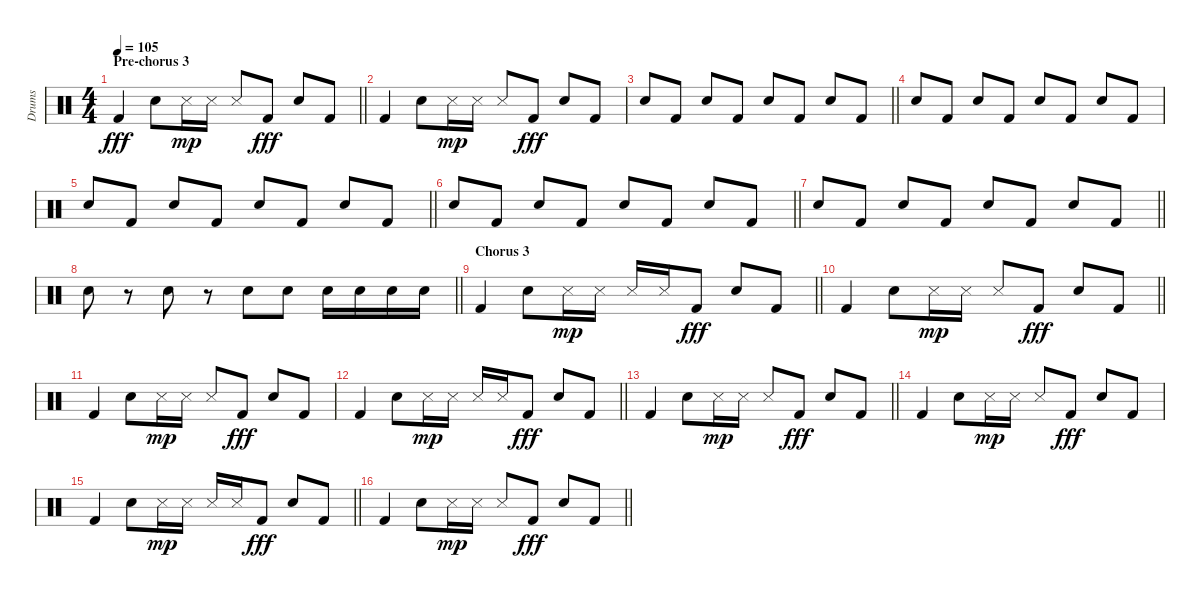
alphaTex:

\track ("Drums" "Drums") {instrument percussion}
\staff {score}
\articulation defaults
\ts (4 4)
\section ("" "Pre-chorus 3")
\tempo 105
\clef neutral
\barLineRight lightlight
\ks aminor "Kick (hit) 2".4{dy fff} "Electric Snare (hit)".8 "Snare (side stick) 3".16{dy mp} "Metronome (hit)".16 "Snare (side stick) 3".8 "Kick (hit) 2".8{dy fff} "Electric Snare (hit)".8 "Kick (hit) 2".8
|
"Kick (hit) 2".4 "Electric Snare (hit)".8 "Snare (side stick) 3".16{dy mp} "Metronome (hit)".16 "Snare (side stick) 3".8 "Kick (hit) 2".8{dy fff} "Electric Snare (hit)".8 "Kick (hit) 2".8 |
\barLineRight lightlight "Electric Snare (hit)".8 "Kick (hit) 2".8 "Electric Snare (hit)".8 "Kick (hit) 2".8 "Electric Snare (hit)".8 "Kick (hit) 2".8 "Electric Snare (hit)".8 "Kick (hit) 2".8
|
"Electric Snare (hit)".8 "Kick (hit) 2".8 "Electric Snare (hit)".8 "Kick (hit) 2".8 "Electric Snare (hit)".8 "Kick (hit) 2".8 "Electric Snare (hit)".8 "Kick (hit) 2".8 |
\barLineRight lightlight "Electric Snare (hit)".8 "Kick (hit) 2".8 "Electric Snare (hit)".8 "Kick (hit) 2".8 "Electric Snare (hit)".8 "Kick (hit) 2".8 "Electric Snare (hit)".8 "Kick (hit) 2".8
|
\barLineRight lightlight "Electric Snare (hit)".8 "Kick (hit) 2".8 "Electric Snare (hit)".8 "Kick (hit) 2".8 "Electric Snare (hit)".8 "Kick (hit) 2".8 "Electric Snare (hit)".8 "Kick (hit) 2".8
|
\barLineRight lightlight "Electric Snare (hit)".8 "Kick (hit) 2".8 "Electric Snare (hit)".8 "Kick (hit) 2".8 "Electric Snare (hit)".8 "Kick (hit) 2".8 "Electric Snare (hit)".8 "Kick (hit) 2".8
|
\barLineRight lightlight "Electric Snare (hit)".8
r.8 "Electric Snare (hit)".8 r.8 "Electric Snare (hit)".8 "Electric Snare (hit)".8 "Electric Snare (hit)".16 "Electric Snare (hit)".16 "Electric Snare (hit)".16 "Electric Snare (hit)".16 |
\section ("" "Chorus 3")
\barLineRight lightlight "Kick (hit) 2".4 "Electric Snare (hit)".8 "Snare (side stick) 3".16{dy mp} "Metronome (hit)".16 "Snare (side stick) 3".16 "Metronome (hit)".16 "Kick (hit) 2".8{dy fff} "Electric Snare (hit)".8 "Kick (hit) 2".8
|
\barLineRight lightlight "Kick (hit) 2".4 "Electric Snare (hit)".8 "Snare (side stick) 3".16{dy mp} "Metronome (hit)".16 "Snare (side stick) 3".8 "Kick (hit) 2".8{dy fff} "Electric Snare (hit)".8 "Kick (hit) 2".8
|
"Kick (hit) 2".4 "Electric Snare (hit)".8 "Snare (side stick) 3".16{dy mp} "Metronome (hit)".16 "Snare (side stick) 3".8 "Kick (hit) 2".8{dy fff} "Electric Snare (hit)".8 "Kick (hit) 2".8 |
\barLineRight lightlight "Kick (hit) 2".4 "Electric Snare (hit)".8 "Snare (side stick) 3".16{dy mp} "Metronome (hit)".16 "Snare (side stick) 3".16 "Metronome (hit)".16 "Kick (hit) 2".8{dy fff} "Electric Snare (hit)".8 "Kick (hit) 2".8
|
\barLineRight lightlight "Kick (hit) 2".4 "Electric Snare (hit)".8 "Snare (side stick) 3".16{dy mp} "Metronome (hit)".16 "Snare (side stick) 3".8 "Kick (hit) 2".8{dy fff} "Electric Snare (hit)".8 "Kick (hit) 2".8
|
"Kick (hit) 2".4 "Electric Snare (hit)".8 "Snare (side stick) 3".16{dy mp} "Metronome (hit)".16 "Snare (side stick) 3".8 "Kick (hit) 2".8{dy fff} "Electric Snare (hit)".8 "Kick (hit) 2".8 |
\barLineRight lightlight "Kick (hit) 2".4 "Electric Snare (hit)".8 "Snare (side stick) 3".16{dy mp} "Metronome (hit)".16 "Snare (side stick) 3".16 "Metronome (hit)".16 "Kick (hit) 2".8{dy fff} "Electric Snare (hit)".8 "Kick (hit) 2".8
|
\barLineRight lightlight "Kick (hit) 2".4 "Electric Snare (hit)".8 "Snare (side stick) 3".16{dy mp} "Metronome (hit)".16 "Snare (side stick) 3".8 "Kick (hit) 2".8{dy fff} "Electric Snare (hit)".8 "Kick (hit) 2".8
